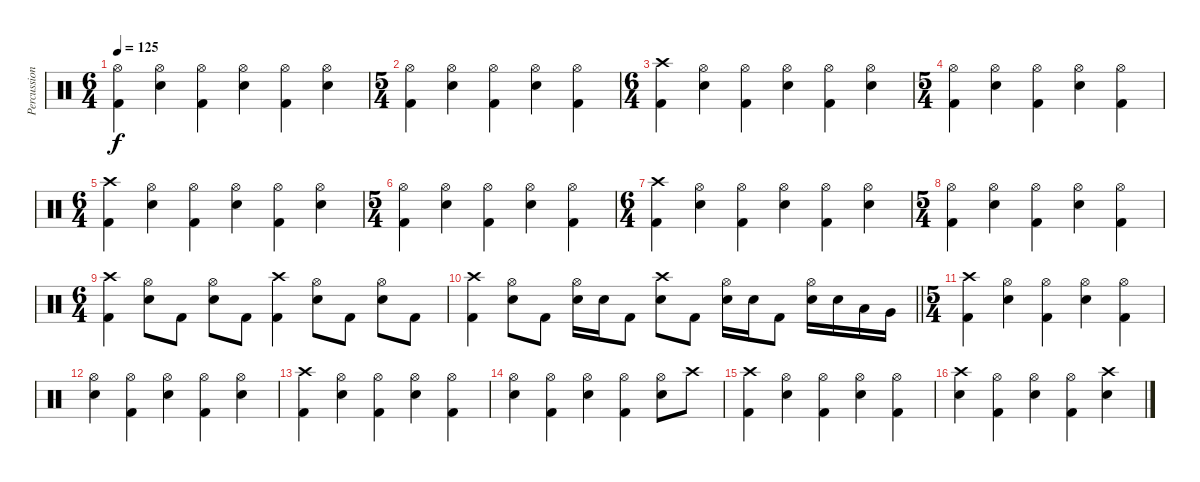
\track ("Percussion" "Percussion") {instrument percussion}
\staff {score}
\articulation defaults
\ts (6 4)
\tempo 125
\clef neutral
\ks c
("Hi-Hat (open)" "Kick (hit) 2").4{dy f} ("Hi-Hat (open)" "Electric Snare (hit)").4 ("Hi-Hat (open)" "Kick (hit) 2").4 ("Hi-Hat (open)" "Electric Snare (hit)").4 ("Hi-Hat (open)" "Kick (hit) 2").4 ("Hi-Hat (open)" "Electric Snare (hit)").4 |
\ts (5 4)
("Hi-Hat (open)" "Kick (hit) 2").4 ("Hi-Hat (open)" "Electric Snare (hit)").4 ("Hi-Hat (open)" "Kick (hit) 2").4 ("Hi-Hat (open)" "Electric Snare (hit)").4 ("Hi-Hat (open)" "Kick (hit) 2").4 |
\ts (6 4)
("Crash high (hit)" "Kick (hit) 2").4 ("Hi-Hat (open)" "Electric Snare (hit)").4 ("Hi-Hat (open)" "Kick (hit) 2").4 ("Hi-Hat (open)" "Electric Snare (hit)").4 ("Hi-Hat (open)" "Kick (hit) 2").4 ("Hi-Hat (open)" "Electric Snare (hit)").4 |
\ts (5 4)
("Hi-Hat (open)" "Kick (hit) 2").4 ("Hi-Hat (open)" "Electric Snare (hit)").4 ("Hi-Hat (open)" "Kick (hit) 2").4 ("Hi-Hat (open)" "Electric Snare (hit)").4 ("Hi-Hat (open)" "Kick (hit) 2").4 |
\ts (6 4)
("Crash high (hit)" "Kick (hit) 2").4 ("Hi-Hat (open)" "Electric Snare (hit)").4 ("Hi-Hat (open)" "Kick (hit) 2").4 ("Hi-Hat (open)" "Electric Snare (hit)").4 ("Hi-Hat (open)" "Kick (hit) 2").4 ("Hi-Hat (open)" "Electric Snare (hit)").4 |
\ts (5 4)
("Hi-Hat (open)" "Kick (hit) 2").4 ("Hi-Hat (open)" "Electric Snare (hit)").4 ("Hi-Hat (open)" "Kick (hit) 2").4 ("Hi-Hat (open)" "Electric Snare (hit)").4 ("Hi-Hat (open)" "Kick (hit) 2").4 |
\ts (6 4)
("Crash high (hit)" "Kick (hit) 2").4 ("Hi-Hat (open)" "Electric Snare (hit)").4 ("Hi-Hat (open)" "Kick (hit) 2").4 ("Hi-Hat (open)" "Electric Snare (hit)").4 ("Hi-Hat (open)" "Kick (hit) 2").4 ("Hi-Hat (open)" "Electric Snare (hit)").4 |
\ts (5 4)
("Hi-Hat (open)" "Kick (hit) 2").4 ("Hi-Hat (open)" "Electric Snare (hit)").4 ("Hi-Hat (open)" "Kick (hit) 2").4 ("Hi-Hat (open)" "Electric Snare (hit)").4 ("Hi-Hat (open)" "Kick (hit) 2").4 |
\ts (6 4)
("Crash high (hit)" "Kick (hit) 2").4 ("Hi-Hat (open)" "Electric Snare (hit)").8 "Kick (hit) 2".8 ("Hi-Hat (open)" "Electric Snare (hit)").8 "Kick (hit) 2".8 ("Crash high (hit)" "Kick (hit) 2").4 ("Hi-Hat (open)" "Electric Snare (hit)").8 "Kick (hit) 2".8 ("Hi-Hat (open)" "Electric Snare (hit)").8 "Kick (hit) 2".8 |
\barLineRight lightlight
("Crash high (hit)" "Kick (hit) 2").4 ("Hi-Hat (open)" "Electric Snare (hit)").8 "Kick (hit) 2".8 ("Hi-Hat (open)" "Electric Snare (hit)").16 "Electric Snare (hit)".16 "Kick (hit) 2".8 ("Crash high (hit)" "Electric Snare (hit)").8 "Kick (hit) 2".8 ("Hi-Hat (open)" "Electric Snare (hit)").16 "Electric Snare (hit)".16 "Kick (hit) 2".8 ("Hi-Hat (open)" "Electric Snare (hit)").16 "Electric Snare (hit)".16 "Low Tom (hit)".16 "Very Low Tom (hit)".16 |
\ts (5 4)
("Crash high (hit)" "Kick (hit) 2").4 ("Hi-Hat (open)" "Electric Snare (hit)").4 ("Hi-Hat (open)" "Kick (hit) 2").4 ("Hi-Hat (open)" "Electric Snare (hit)").4 ("Hi-Hat (open)" "Kick (hit) 2").4 |
("Hi-Hat (open)" "Electric Snare (hit)").4 ("Hi-Hat (open)" "Kick (hit) 2").4 ("Hi-Hat (open)" "Electric Snare (hit)").4 ("Hi-Hat (open)" "Kick (hit) 2").4 ("Hi-Hat (open)" "Electric Snare (hit)").4 |
("Crash high (hit)" "Kick (hit) 2").4 ("Hi-Hat (open)" "Electric Snare (hit)").4 ("Hi-Hat (open)" "Kick (hit) 2").4 ("Hi-Hat (open)" "Electric Snare (hit)").4 ("Hi-Hat (open)" "Kick (hit) 2").4 |
("Hi-Hat (open)" "Electric Snare (hit)").4 ("Hi-Hat (open)" "Kick (hit) 2").4 ("Hi-Hat (open)" "Electric Snare (hit)").4 ("Hi-Hat (open)" "Kick (hit) 2").4 ("Hi-Hat (open)" "Electric Snare (hit)").8 "Crash high (hit)".8 |
("Crash high (hit)" "Kick (hit) 2").4 ("Hi-Hat (open)" "Electric Snare (hit)").4 ("Hi-Hat (open)" "Kick (hit) 2").4 ("Hi-Hat (open)" "Electric Snare (hit)").4 ("Hi-Hat (open)" "Kick (hit) 2").4 |
("Crash high (hit)" "Electric Snare (hit)").4 ("Hi-Hat (open)" "Kick (hit) 2").4 ("Hi-Hat (open)" "Electric Snare (hit)").4 ("Hi-Hat (open)" "Kick (hit) 2").4 ("Crash high (hit)" "Electric Snare (hit)").4
